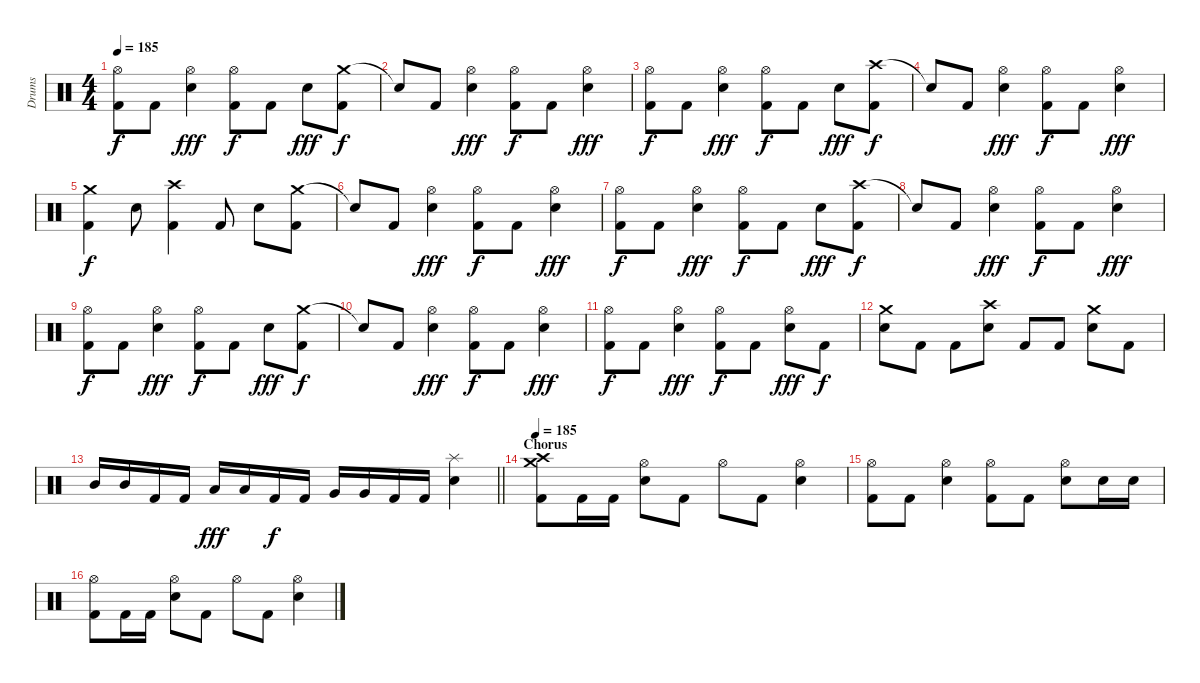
\track ("Drums" "Drums") {instrument percussion}
\staff {score}
\articulation defaults
\ts (4 4)
\tempo 185
\clef neutral
\ks c
("Hi-Hat (open)" "Kick (hit) 2").8{dy f} "Kick (hit) 2".8 ("Hi-Hat (open)" "Electric Snare (hit)").4{dy fff} ("Hi-Hat (open)" "Kick (hit) 2").8{dy f} "Kick (hit) 2".8 "Electric Snare (hit)".8{dy fff} ("Crash medium (hit)" "Kick (hit) 2").8{dy f} |
"Snare (hit)"{t}.8 "Kick (hit) 2".8 ("Hi-Hat (open)" "Electric Snare (hit)").4{dy fff} ("Hi-Hat (open)" "Kick (hit) 2").8{dy f} "Kick (hit) 2".8 ("Hi-Hat (open)" "Electric Snare (hit)").4{dy fff} |
("Hi-Hat (open)" "Kick (hit) 2").8{dy f} "Kick (hit) 2".8 ("Hi-Hat (open)" "Electric Snare (hit)").4{dy fff} ("Hi-Hat (open)" "Kick (hit) 2").8{dy f} "Kick (hit) 2".8 "Electric Snare (hit)".8{dy fff} ("Crash high (hit)" "Kick (hit) 2").8{dy f} |
"Snare (hit)"{t}.8 "Kick (hit) 2".8 ("Hi-Hat (open)" "Electric Snare (hit)").4{dy fff} ("Hi-Hat (open)" "Kick (hit) 2").8{dy f} "Kick (hit) 2".8 ("Hi-Hat (open)" "Electric Snare (hit)").4{dy fff} |
("Crash medium (hit)" "Kick (hit) 2").4{dy f} "Electric Snare (hit)".8 ("Crash high (hit)" "Kick (hit) 2").4 "Kick (hit) 2".8 "Electric Snare (hit)".8 ("Crash medium (hit)" "Kick (hit) 2").8 |
"Snare (hit)"{t}.8 "Kick (hit) 2".8 ("Hi-Hat (open)" "Electric Snare (hit)").4{dy fff} ("Hi-Hat (open)" "Kick (hit) 2").8{dy f} "Kick (hit) 2".8 ("Hi-Hat (open)" "Electric Snare (hit)").4{dy fff} |
("Hi-Hat (open)" "Kick (hit) 2").8{dy f} "Kick (hit) 2".8 ("Hi-Hat (open)" "Electric Snare (hit)").4{dy fff} ("Hi-Hat (open)" "Kick (hit) 2").8{dy f} "Kick (hit) 2".8 "Electric Snare (hit)".8{dy fff} ("Crash high (hit)" "Kick (hit) 2").8{dy f} |
"Snare (hit)"{t}.8 "Kick (hit) 2".8 ("Hi-Hat (open)" "Electric Snare (hit)").4{dy fff} ("Hi-Hat (open)" "Kick (hit) 2").8{dy f} "Kick (hit) 2".8 ("Hi-Hat (open)" "Electric Snare (hit)").4{dy fff} |
("Hi-Hat (open)" "Kick (hit) 2").8{dy f} "Kick (hit) 2".8 ("Hi-Hat (open)" "Electric Snare (hit)").4{dy fff} ("Hi-Hat (open)" "Kick (hit) 2").8{dy f} "Kick (hit) 2".8 "Electric Snare (hit)".8{dy fff} ("Crash medium (hit)" "Kick (hit) 2").8{dy f} |
"Snare (hit)"{t}.8 "Kick (hit) 2".8 ("Hi-Hat (open)" "Electric Snare (hit)").4{dy fff} ("Hi-Hat (open)" "Kick (hit) 2").8{dy f} "Kick (hit) 2".8 ("Hi-Hat (open)" "Electric Snare (hit)").4{dy fff} |
("Hi-Hat (open)" "Kick (hit) 2").8{dy f} "Kick (hit) 2".8 ("Hi-Hat (open)" "Electric Snare (hit)").4{dy fff} ("Hi-Hat (open)" "Kick (hit) 2").8{dy f} "Kick (hit) 2".8 ("Hi-Hat (open)" "Electric Snare (hit)").8{dy fff} "Kick (hit) 2".8{dy f} |
("Crash medium (hit)" "Electric Snare (hit)").8 "Kick (hit) 2".8 "Kick (hit) 2".8 ("Crash high (hit)" "Electric Snare (hit)").8 "Kick (hit) 2".8 "Kick (hit) 2".8 ("Crash medium (hit)" "Electric Snare (hit)").8 "Kick (hit) 2".8 |
\barLineRight lightlight "Mid Tom (hit)".16 "Mid Tom (hit)".16 "Kick (hit) 2".16 "Kick (hit) 2".16 "Low Tom (hit)".16{dy fff} "Low Tom (hit)".16 "Kick (hit) 2".16{dy f} "Kick (hit) 2".16 "Very Low Tom (hit)".16 "Very Low Tom (hit)".16 "Kick (hit) 2".16 "Kick (hit) 2".16
("Splash (hit)" "Electric Snare (hit)").4 |
\section ("" "Chorus")
\tempo 185
("Crash medium (hit)" "Crash high (hit)" "Kick (hit) 2").8 "Kick (hit) 2".16 "Kick (hit) 2".16 ("Hi-Hat (open)" "Electric Snare (hit)").8 "Kick (hit) 2".8 "Hi-Hat (open)".8 "Kick (hit) 2".8 ("Hi-Hat (open)" "Electric Snare (hit)").4 |
("Hi-Hat (open)" "Kick (hit) 2").8 "Kick (hit) 2".8 ("Hi-Hat (open)" "Electric Snare (hit)").4 ("Hi-Hat (open)" "Kick (hit) 2").8 "Kick (hit) 2".8 ("Hi-Hat (open)" "Electric Snare (hit)").8 "Electric Snare (hit)".16 "Electric Snare (hit)".16 |
("Hi-Hat (open)" "Kick (hit) 2").8 "Kick (hit) 2".16 "Kick (hit) 2".16 ("Hi-Hat (open)" "Electric Snare (hit)").8 "Kick (hit) 2".8 "Hi-Hat (open)".8 "Kick (hit) 2".8 ("Hi-Hat (open)" "Electric Snare (hit)").4
